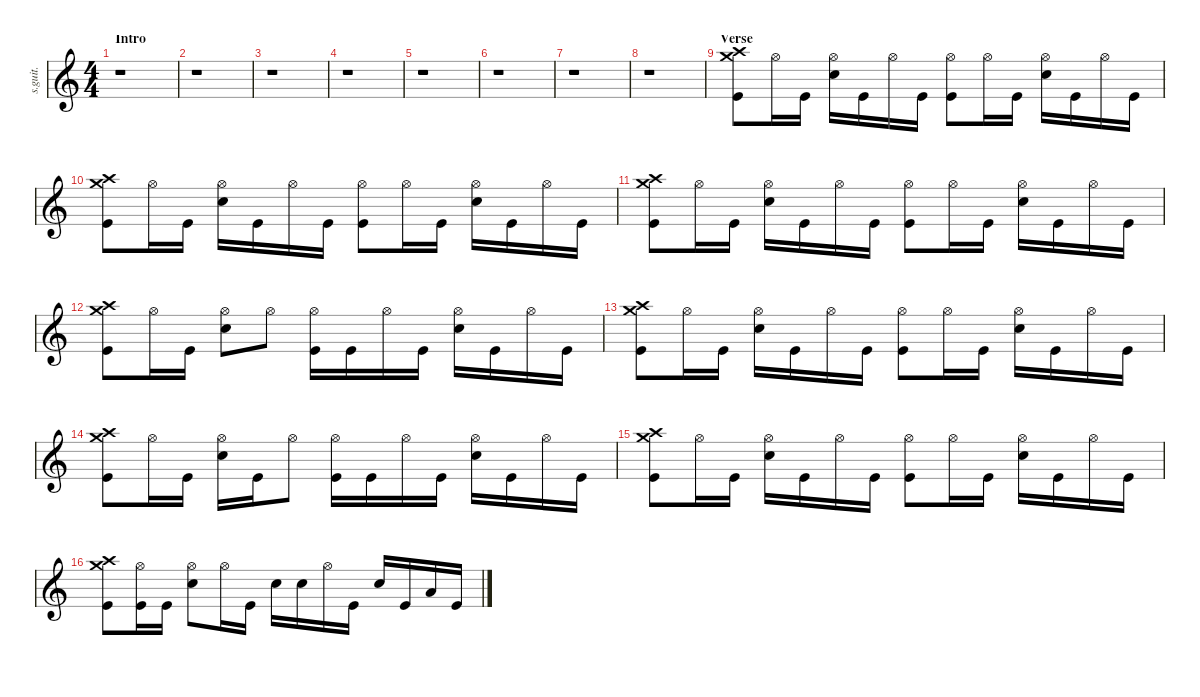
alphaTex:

\defaultSystemsLayout 4
\hideDynamics
\bracketExtendMode nobrackets
\track ("Abe Cunningham" "s.guit.") {instrument percussion}
\staff {score}
\articulation defaults
\ts (4 4)
\beaming (8 2 2 2 2)
\section ("" "Intro")
\tempo (80 hide)
\clef g2
\ks c
r.1{dy fff} |
r.1 |
r.1 |
r.1 |
r.1 |
r.1 |
r.1 |
r.1 |
\section ("" "Verse")
\tempo (93 hide)
("Crash high (hit)" "Kick (hit)" "Crash medium (hit)").8{lyrics (0 "") lyrics (1 "") lyrics (2 "") lyrics (3 "") lyrics (4 "")} "Hi-Hat (open)".16{lyrics (0 "") lyrics (1 "") lyrics (2 "") lyrics (3 "") lyrics (4 "")} "Kick (hit)".16{lyrics (0 "") lyrics (1 "") lyrics (2 "") lyrics (3 "") lyrics (4 "")} ("Snare (hit) 2" "Hi-Hat (open)").16{lyrics (0 "") lyrics (1 "") lyrics (2 "") lyrics (3 "") lyrics (4 "")} "Kick (hit)".16{lyrics (0 "") lyrics (1 "") lyrics (2 "") lyrics (3 "") lyrics (4 "")} "Hi-Hat (open)".16{lyrics (0 "") lyrics (1 "") lyrics (2 "") lyrics (3 "") lyrics (4 "")} "Kick (hit)".16{lyrics (0 "") lyrics (1 "") lyrics (2 "") lyrics (3 "") lyrics (4 "")} ("Hi-Hat (open)" "Kick (hit)").8{lyrics (0 "") lyrics (1 "") lyrics (2 "") lyrics (3 "") lyrics (4 "")} "Hi-Hat (open)".16{lyrics (0 "") lyrics (1 "") lyrics (2 "") lyrics (3 "") lyrics (4 "")} "Kick (hit)".16{lyrics (0 "") lyrics (1 "") lyrics (2 "") lyrics (3 "") lyrics (4 "")} ("Hi-Hat (open)" "Snare (hit) 2").16{lyrics (0 "") lyrics (1 "") lyrics (2 "") lyrics (3 "") lyrics (4 "")} "Kick (hit)".16{lyrics (0 "") lyrics (1 "") lyrics (2 "") lyrics (3 "") lyrics (4 "")} "Hi-Hat (open)".16{lyrics (0 "") lyrics (1 "") lyrics (2 "") lyrics (3 "") lyrics (4 "")} "Kick (hit)".16{lyrics (0 "") lyrics (1 "") lyrics (2 "") lyrics (3 "") lyrics (4 "")} |
("Crash high (hit)" "Kick (hit)" "Crash medium (hit)").8{lyrics (0 "") lyrics (1 "") lyrics (2 "") lyrics (3 "") lyrics (4 "")} "Hi-Hat (open)".16{lyrics (0 "") lyrics (1 "") lyrics (2 "") lyrics (3 "") lyrics (4 "")} "Kick (hit)".16{lyrics (0 "") lyrics (1 "") lyrics (2 "") lyrics (3 "") lyrics (4 "")} ("Snare (hit) 2" "Hi-Hat (open)").16{lyrics (0 "") lyrics (1 "") lyrics (2 "") lyrics (3 "") lyrics (4 "")} "Kick (hit)".16{lyrics (0 "") lyrics (1 "") lyrics (2 "") lyrics (3 "") lyrics (4 "")} "Hi-Hat (open)".16{lyrics (0 "") lyrics (1 "") lyrics (2 "") lyrics (3 "") lyrics (4 "")} "Kick (hit)".16{lyrics (0 "") lyrics (1 "") lyrics (2 "") lyrics (3 "") lyrics (4 "")} ("Hi-Hat (open)" "Kick (hit)").8{lyrics (0 "") lyrics (1 "") lyrics (2 "") lyrics (3 "") lyrics (4 "")} "Hi-Hat (open)".16{lyrics (0 "") lyrics (1 "") lyrics (2 "") lyrics (3 "") lyrics (4 "")} "Kick (hit)".16{lyrics (0 "") lyrics (1 "") lyrics (2 "") lyrics (3 "") lyrics (4 "")} ("Hi-Hat (open)" "Snare (hit) 2").16{lyrics (0 "") lyrics (1 "") lyrics (2 "") lyrics (3 "") lyrics (4 "")} "Kick (hit)".16{lyrics (0 "") lyrics (1 "") lyrics (2 "") lyrics (3 "") lyrics (4 "")} "Hi-Hat (open)".16{lyrics (0 "") lyrics (1 "") lyrics (2 "") lyrics (3 "") lyrics (4 "")} "Kick (hit)".16{lyrics (0 "") lyrics (1 "") lyrics (2 "") lyrics (3 "") lyrics (4 "")} |
("Crash high (hit)" "Kick (hit)" "Crash medium (hit)").8{lyrics (0 "") lyrics (1 "") lyrics (2 "") lyrics (3 "") lyrics (4 "")} "Hi-Hat (open)".16{lyrics (0 "") lyrics (1 "") lyrics (2 "") lyrics (3 "") lyrics (4 "")} "Kick (hit)".16{lyrics (0 "") lyrics (1 "") lyrics (2 "") lyrics (3 "") lyrics (4 "")} ("Snare (hit) 2" "Hi-Hat (open)").16{lyrics (0 "") lyrics (1 "") lyrics (2 "") lyrics (3 "") lyrics (4 "")} "Kick (hit)".16{lyrics (0 "") lyrics (1 "") lyrics (2 "") lyrics (3 "") lyrics (4 "")} "Hi-Hat (open)".16{lyrics (0 "") lyrics (1 "") lyrics (2 "") lyrics (3 "") lyrics (4 "")} "Kick (hit)".16{lyrics (0 "") lyrics (1 "") lyrics (2 "") lyrics (3 "") lyrics (4 "")} ("Hi-Hat (open)" "Kick (hit)").8{lyrics (0 "") lyrics (1 "") lyrics (2 "") lyrics (3 "") lyrics (4 "")} "Hi-Hat (open)".16{lyrics (0 "") lyrics (1 "") lyrics (2 "") lyrics (3 "") lyrics (4 "")} "Kick (hit)".16{lyrics (0 "") lyrics (1 "") lyrics (2 "") lyrics (3 "") lyrics (4 "")} ("Hi-Hat (open)" "Snare (hit) 2").16{lyrics (0 "") lyrics (1 "") lyrics (2 "") lyrics (3 "") lyrics (4 "")} "Kick (hit)".16{lyrics (0 "") lyrics (1 "") lyrics (2 "") lyrics (3 "") lyrics (4 "")} "Hi-Hat (open)".16{lyrics (0 "") lyrics (1 "") lyrics (2 "") lyrics (3 "") lyrics (4 "")} "Kick (hit)".16{lyrics (0 "") lyrics (1 "") lyrics (2 "") lyrics (3 "") lyrics (4 "")} |
("Crash high (hit)" "Kick (hit)" "Crash medium (hit)").8{lyrics (0 "") lyrics (1 "") lyrics (2 "") lyrics (3 "") lyrics (4 "")} "Hi-Hat (open)".16{lyrics (0 "") lyrics (1 "") lyrics (2 "") lyrics (3 "") lyrics (4 "")} "Kick (hit)".16{lyrics (0 "") lyrics (1 "") lyrics (2 "") lyrics (3 "") lyrics (4 "")} ("Snare (hit) 2" "Hi-Hat (open)").8{lyrics (0 "") lyrics (1 "") lyrics (2 "") lyrics (3 "") lyrics (4 "")} "Hi-Hat (open)".8{lyrics (0 "") lyrics (1 "") lyrics (2 "") lyrics (3 "") lyrics (4 "")} ("Hi-Hat (open)" "Kick (hit)").16{lyrics (0 "") lyrics (1 "") lyrics (2 "") lyrics (3 "") lyrics (4 "")} "Kick (hit)".16{lyrics (0 "") lyrics (1 "") lyrics (2 "") lyrics (3 "") lyrics (4 "")} "Hi-Hat (open)".16{lyrics (0 "") lyrics (1 "") lyrics (2 "") lyrics (3 "") lyrics (4 "")} "Kick (hit)".16{lyrics (0 "") lyrics (1 "") lyrics (2 "") lyrics (3 "") lyrics (4 "")} ("Hi-Hat (open)" "Snare (hit) 2").16{lyrics (0 "") lyrics (1 "") lyrics (2 "") lyrics (3 "") lyrics (4 "")} "Kick (hit)".16{lyrics (0 "") lyrics (1 "") lyrics (2 "") lyrics (3 "") lyrics (4 "")} "Hi-Hat (open)".16{lyrics (0 "") lyrics (1 "") lyrics (2 "") lyrics (3 "") lyrics (4 "")} "Kick (hit)".16{lyrics (0 "") lyrics (1 "") lyrics (2 "") lyrics (3 "") lyrics (4 "")} |
("Crash high (hit)" "Kick (hit)" "Crash medium (hit)").8{lyrics (0 "") lyrics (1 "") lyrics (2 "") lyrics (3 "") lyrics (4 "")} "Hi-Hat (open)".16{lyrics (0 "") lyrics (1 "") lyrics (2 "") lyrics (3 "") lyrics (4 "")} "Kick (hit)".16{lyrics (0 "") lyrics (1 "") lyrics (2 "") lyrics (3 "") lyrics (4 "")} ("Snare (hit) 2" "Hi-Hat (open)").16{lyrics (0 "") lyrics (1 "") lyrics (2 "") lyrics (3 "") lyrics (4 "")} "Kick (hit)".16{lyrics (0 "") lyrics (1 "") lyrics (2 "") lyrics (3 "") lyrics (4 "")} "Hi-Hat (open)".16{lyrics (0 "") lyrics (1 "") lyrics (2 "") lyrics (3 "") lyrics (4 "")} "Kick (hit)".16{lyrics (0 "") lyrics (1 "") lyrics (2 "") lyrics (3 "") lyrics (4 "")} ("Hi-Hat (open)" "Kick (hit)").8{lyrics (0 "") lyrics (1 "") lyrics (2 "") lyrics (3 "") lyrics (4 "")} "Hi-Hat (open)".16{lyrics (0 "") lyrics (1 "") lyrics (2 "") lyrics (3 "") lyrics (4 "")} "Kick (hit)".16{lyrics (0 "") lyrics (1 "") lyrics (2 "") lyrics (3 "") lyrics (4 "")} ("Hi-Hat (open)" "Snare (hit) 2").16{lyrics (0 "") lyrics (1 "") lyrics (2 "") lyrics (3 "") lyrics (4 "")} "Kick (hit)".16{lyrics (0 "") lyrics (1 "") lyrics (2 "") lyrics (3 "") lyrics (4 "")} "Hi-Hat (open)".16{lyrics (0 "") lyrics (1 "") lyrics (2 "") lyrics (3 "") lyrics (4 "")} "Kick (hit)".16{lyrics (0 "") lyrics (1 "") lyrics (2 "") lyrics (3 "") lyrics (4 "")} |
("Crash high (hit)" "Kick (hit)" "Crash medium (hit)").8{lyrics (0 "") lyrics (1 "") lyrics (2 "") lyrics (3 "") lyrics (4 "")} "Hi-Hat (open)".16{lyrics (0 "") lyrics (1 "") lyrics (2 "") lyrics (3 "") lyrics (4 "")} "Kick (hit)".16{lyrics (0 "") lyrics (1 "") lyrics (2 "") lyrics (3 "") lyrics (4 "")} ("Snare (hit) 2" "Hi-Hat (open)").16{lyrics (0 "") lyrics (1 "") lyrics (2 "") lyrics (3 "") lyrics (4 "")} "Kick (hit)".16{lyrics (0 "") lyrics (1 "") lyrics (2 "") lyrics (3 "") lyrics (4 "")} "Hi-Hat (open)".8{lyrics (0 "") lyrics (1 "") lyrics (2 "") lyrics (3 "") lyrics (4 "")} ("Hi-Hat (open)" "Kick (hit)").16{lyrics (0 "") lyrics (1 "") lyrics (2 "") lyrics (3 "") lyrics (4 "")} "Kick (hit)".16{lyrics (0 "") lyrics (1 "") lyrics (2 "") lyrics (3 "") lyrics (4 "")} "Hi-Hat (open)".16{lyrics (0 "") lyrics (1 "") lyrics (2 "") lyrics (3 "") lyrics (4 "")} "Kick (hit)".16{lyrics (0 "") lyrics (1 "") lyrics (2 "") lyrics (3 "") lyrics (4 "")} ("Hi-Hat (open)" "Snare (hit) 2").16{lyrics (0 "") lyrics (1 "") lyrics (2 "") lyrics (3 "") lyrics (4 "")} "Kick (hit)".16{lyrics (0 "") lyrics (1 "") lyrics (2 "") lyrics (3 "") lyrics (4 "")} "Hi-Hat (open)".16{lyrics (0 "") lyrics (1 "") lyrics (2 "") lyrics (3 "") lyrics (4 "")} "Kick (hit)".16{lyrics (0 "") lyrics (1 "") lyrics (2 "") lyrics (3 "") lyrics (4 "")} |
("Crash high (hit)" "Kick (hit)" "Crash medium (hit)").8{lyrics (0 "") lyrics (1 "") lyrics (2 "") lyrics (3 "") lyrics (4 "")} "Hi-Hat (open)".16{lyrics (0 "") lyrics (1 "") lyrics (2 "") lyrics (3 "") lyrics (4 "")} "Kick (hit)".16{lyrics (0 "") lyrics (1 "") lyrics (2 "") lyrics (3 "") lyrics (4 "")} ("Snare (hit) 2" "Hi-Hat (open)").16{lyrics (0 "") lyrics (1 "") lyrics (2 "") lyrics (3 "") lyrics (4 "")} "Kick (hit)".16{lyrics (0 "") lyrics (1 "") lyrics (2 "") lyrics (3 "") lyrics (4 "")} "Hi-Hat (open)".16{lyrics (0 "") lyrics (1 "") lyrics (2 "") lyrics (3 "") lyrics (4 "")} "Kick (hit)".16{lyrics (0 "") lyrics (1 "") lyrics (2 "") lyrics (3 "") lyrics (4 "")} ("Hi-Hat (open)" "Kick (hit)").8{lyrics (0 "") lyrics (1 "") lyrics (2 "") lyrics (3 "") lyrics (4 "")} "Hi-Hat (open)".16{lyrics (0 "") lyrics (1 "") lyrics (2 "") lyrics (3 "") lyrics (4 "")} "Kick (hit)".16{lyrics (0 "") lyrics (1 "") lyrics (2 "") lyrics (3 "") lyrics (4 "")} ("Hi-Hat (open)" "Snare (hit) 2").16{lyrics (0 "") lyrics (1 "") lyrics (2 "") lyrics (3 "") lyrics (4 "")} "Kick (hit)".16{lyrics (0 "") lyrics (1 "") lyrics (2 "") lyrics (3 "") lyrics (4 "")} "Hi-Hat (open)".16{lyrics (0 "") lyrics (1 "") lyrics (2 "") lyrics (3 "") lyrics (4 "")} "Kick (hit)".16{lyrics (0 "") lyrics (1 "") lyrics (2 "") lyrics (3 "") lyrics (4 "")} |
("Crash high (hit)" "Kick (hit)" "Crash medium (hit)").8{lyrics (0 "") lyrics (1 "") lyrics (2 "") lyrics (3 "") lyrics (4 "")} ("Hi-Hat (open)" "Kick (hit)").16{lyrics (0 "") lyrics (1 "") lyrics (2 "") lyrics (3 "") lyrics (4 "")} "Kick (hit)".16{lyrics (0 "") lyrics (1 "") lyrics (2 "") lyrics (3 "") lyrics (4 "")} ("Snare (hit) 2" "Hi-Hat (open)").8{lyrics (0 "") lyrics (1 "") lyrics (2 "") lyrics (3 "") lyrics (4 "")} "Hi-Hat (open)".16{lyrics (0 "") lyrics (1 "") lyrics (2 "") lyrics (3 "") lyrics (4 "")} "Kick (hit)".16{lyrics (0 "") lyrics (1 "") lyrics (2 "") lyrics (3 "") lyrics (4 "")} "Snare (hit) 2".16{lyrics (0 "") lyrics (1 "") lyrics (2 "") lyrics (3 "") lyrics (4 "")} "Snare (hit) 2".16{lyrics (0 "") lyrics (1 "") lyrics (2 "") lyrics (3 "") lyrics (4 "")} "Hi-Hat (open)".16{lyrics (0 "") lyrics (1 "") lyrics (2 "") lyrics (3 "") lyrics (4 "")} "Kick (hit)".16{lyrics (0 "") lyrics (1 "") lyrics (2 "") lyrics (3 "") lyrics (4 "")} "Snare (hit) 2".16{lyrics (0 "") lyrics (1 "") lyrics (2 "") lyrics (3 "") lyrics (4 "")} "Kick (hit)".16{lyrics (0 "") lyrics (1 "") lyrics (2 "") lyrics (3 "") lyrics (4 "")} "Low Tom (hit)".16{lyrics (0 "") lyrics (1 "") lyrics (2 "") lyrics (3 "") lyrics (4 "")} "Kick (hit)".16{lyrics (0 "") lyrics (1 "") lyrics (2 "") lyrics (3 "") lyrics (4 "")}
